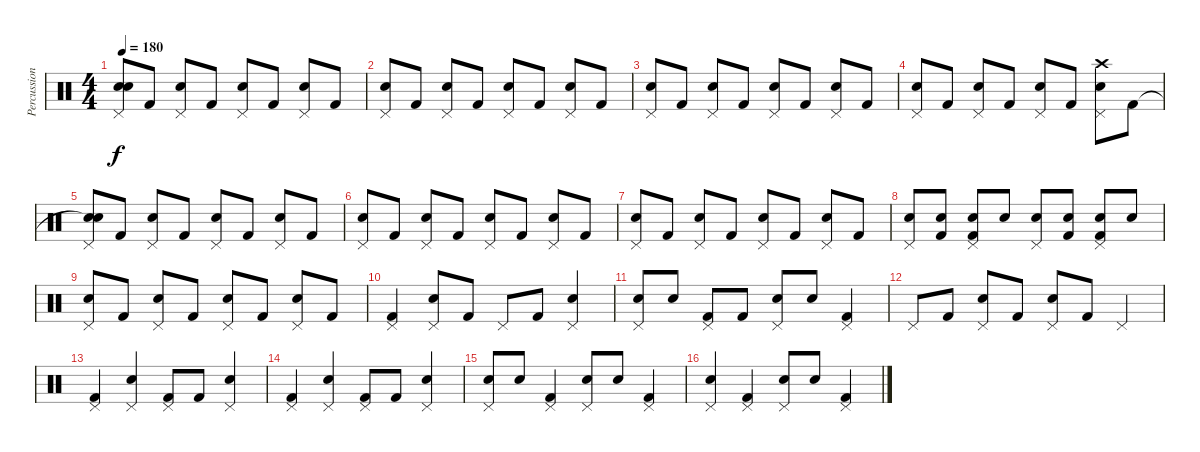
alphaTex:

\track ("Percussion" "Percussion") {instrument percussion}
\staff {score}
\articulation defaults
\ts (4 4)
\tempo 180
\clef neutral
\ks c
("Snare (hit)"{t} "Pedal Hi-Hat (hit)" "Electric Snare (hit)").8{dy f} "Kick (hit) 2".8 ("Pedal Hi-Hat (hit)" "Electric Snare (hit)").8 "Kick (hit) 2".8 ("Pedal Hi-Hat (hit)" "Electric Snare (hit)").8 "Kick (hit) 2".8 ("Pedal Hi-Hat (hit)" "Electric Snare (hit)").8 "Kick (hit) 2".8 |
("Pedal Hi-Hat (hit)" "Electric Snare (hit)").8 "Kick (hit) 2".8 ("Pedal Hi-Hat (hit)" "Electric Snare (hit)").8 "Kick (hit) 2".8 ("Pedal Hi-Hat (hit)" "Electric Snare (hit)").8 "Kick (hit) 2".8 ("Pedal Hi-Hat (hit)" "Electric Snare (hit)").8 "Kick (hit) 2".8 |
("Pedal Hi-Hat (hit)" "Electric Snare (hit)").8 "Kick (hit) 2".8 ("Pedal Hi-Hat (hit)" "Electric Snare (hit)").8 "Kick (hit) 2".8 ("Pedal Hi-Hat (hit)" "Electric Snare (hit)").8 "Kick (hit) 2".8 ("Pedal Hi-Hat (hit)" "Electric Snare (hit)").8 "Kick (hit) 2".8 |
("Pedal Hi-Hat (hit)" "Electric Snare (hit)").8 "Kick (hit) 2".8 ("Pedal Hi-Hat (hit)" "Electric Snare (hit)").8 "Kick (hit) 2".8 ("Pedal Hi-Hat (hit)" "Electric Snare (hit)").8 "Kick (hit) 2".8 ("Crash high (hit)" "Pedal Hi-Hat (hit)" "Electric Snare (hit)").8 "Kick (hit) 2".8 |
("Snare (hit)"{t} "Pedal Hi-Hat (hit)" "Electric Snare (hit)").8 "Kick (hit) 2".8 ("Pedal Hi-Hat (hit)" "Electric Snare (hit)").8 "Kick (hit) 2".8 ("Pedal Hi-Hat (hit)" "Electric Snare (hit)").8 "Kick (hit) 2".8 ("Pedal Hi-Hat (hit)" "Electric Snare (hit)").8 "Kick (hit) 2".8 |
("Pedal Hi-Hat (hit)" "Electric Snare (hit)").8 "Kick (hit) 2".8 ("Pedal Hi-Hat (hit)" "Electric Snare (hit)").8 "Kick (hit) 2".8 ("Pedal Hi-Hat (hit)" "Electric Snare (hit)").8 "Kick (hit) 2".8 ("Pedal Hi-Hat (hit)" "Electric Snare (hit)").8 "Kick (hit) 2".8 |
("Pedal Hi-Hat (hit)" "Electric Snare (hit)").8 "Kick (hit) 2".8 ("Pedal Hi-Hat (hit)" "Electric Snare (hit)").8 "Kick (hit) 2".8 ("Pedal Hi-Hat (hit)" "Electric Snare (hit)").8 "Kick (hit) 2".8 ("Pedal Hi-Hat (hit)" "Electric Snare (hit)").8 "Kick (hit) 2".8 |
("Pedal Hi-Hat (hit)" "Electric Snare (hit)").8 ("Electric Snare (hit)" "Kick (hit) 2").8 ("Pedal Hi-Hat (hit)" "Electric Snare (hit)" "Kick (hit) 2").8 "Electric Snare (hit)".8 ("Pedal Hi-Hat (hit)" "Electric Snare (hit)").8 ("Electric Snare (hit)" "Kick (hit) 2").8 ("Pedal Hi-Hat (hit)" "Electric Snare (hit)" "Kick (hit) 2").8 "Electric Snare (hit)".8 |
("Pedal Hi-Hat (hit)" "Electric Snare (hit)").8 "Kick (hit) 2".8 ("Pedal Hi-Hat (hit)" "Electric Snare (hit)").8 "Kick (hit) 2".8 ("Pedal Hi-Hat (hit)" "Electric Snare (hit)").8 "Kick (hit) 2".8 ("Pedal Hi-Hat (hit)" "Electric Snare (hit)").8 "Kick (hit) 2".8 |
("Pedal Hi-Hat (hit)" "Kick (hit) 2").4 ("Pedal Hi-Hat (hit)" "Electric Snare (hit)").8 "Kick (hit) 2".8 "Pedal Hi-Hat (hit)".8 "Kick (hit) 2".8 ("Pedal Hi-Hat (hit)" "Electric Snare (hit)").4 |
("Pedal Hi-Hat (hit)" "Electric Snare (hit)").8 "Electric Snare (hit)".8 ("Pedal Hi-Hat (hit)" "Kick (hit) 2").8 "Kick (hit) 2".8 ("Pedal Hi-Hat (hit)" "Electric Snare (hit)").8 "Electric Snare (hit)".8 ("Pedal Hi-Hat (hit)" "Kick (hit) 2").4 |
"Pedal Hi-Hat (hit)".8 "Kick (hit) 2".8 ("Pedal Hi-Hat (hit)" "Electric Snare (hit)").8 "Kick (hit) 2".8 ("Pedal Hi-Hat (hit)" "Electric Snare (hit)").8 "Kick (hit) 2".8 "Pedal Hi-Hat (hit)".4 |
("Pedal Hi-Hat (hit)" "Kick (hit) 2").4 ("Pedal Hi-Hat (hit)" "Electric Snare (hit)").4 ("Pedal Hi-Hat (hit)" "Kick (hit) 2").8 "Kick (hit) 2".8 ("Pedal Hi-Hat (hit)" "Electric Snare (hit)").4 |
("Pedal Hi-Hat (hit)" "Kick (hit) 2").4 ("Pedal Hi-Hat (hit)" "Electric Snare (hit)").4 ("Pedal Hi-Hat (hit)" "Kick (hit) 2").8 "Kick (hit) 2".8 ("Pedal Hi-Hat (hit)" "Electric Snare (hit)").4 |
("Pedal Hi-Hat (hit)" "Electric Snare (hit)").8 "Electric Snare (hit)".8 ("Pedal Hi-Hat (hit)" "Kick (hit) 2").4 ("Pedal Hi-Hat (hit)" "Electric Snare (hit)").8 "Electric Snare (hit)".8 ("Pedal Hi-Hat (hit)" "Kick (hit) 2").4 |
("Pedal Hi-Hat (hit)" "Electric Snare (hit)").4 ("Pedal Hi-Hat (hit)" "Kick (hit) 2").4 ("Pedal Hi-Hat (hit)" "Electric Snare (hit)").8 "Electric Snare (hit)".8 ("Pedal Hi-Hat (hit)" "Kick (hit) 2").4
